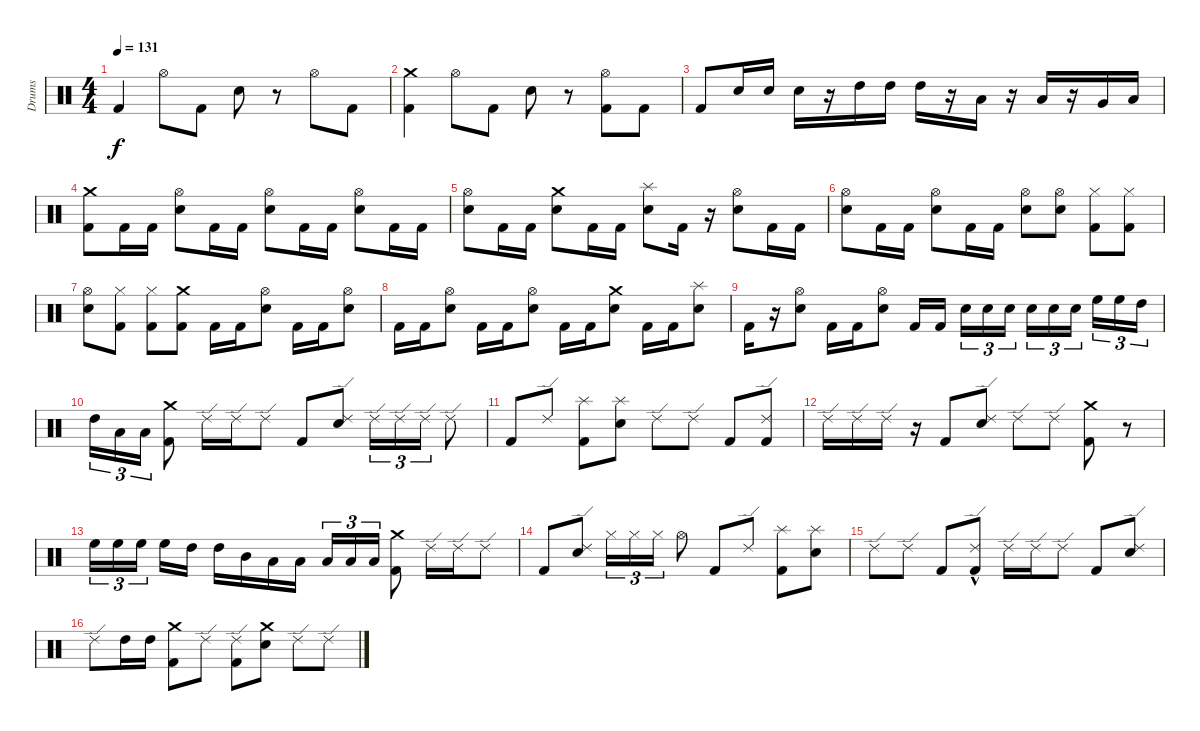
\track ("Drums" "Drums") {instrument percussion}
\staff {score}
\articulation defaults
\ts (4 4)
\tempo 131
\clef neutral
\ks c "Kick (hit) 2".4{dy f} "Hi-Hat (open)".8 "Kick (hit) 2".8 "Electric Snare (hit)".8
r.8 "Hi-Hat (open)".8 "Kick (hit) 2".8 |
("Crash medium (hit)" "Kick (hit) 2").4 "Hi-Hat (open)".8 "Kick (hit) 2".8 "Electric Snare (hit)".8 r.8 ("Kick (hit) 2" "Hi-Hat (open)").8 "Kick (hit) 2".8 |
"Kick (hit) 2".8 "Electric Snare (hit)".16 "Electric Snare (hit)".16 "Electric Snare (hit)".16 r.16 "High Tom (hit)".16 "High Tom (hit)".16 "High Tom (hit)".16 r.16 "Low Tom (hit)".16 r.16 "Low Tom (hit)".16 r.16 "Very Low Tom (hit)".16 "Low Floor Tom (hit)".16 |
("Crash medium (hit)" "Kick (hit) 2").8 "Kick (hit) 2".16 "Kick (hit) 2".16 ("Hi-Hat (open)" "Electric Snare (hit)").8 "Kick (hit) 2".16 "Kick (hit) 2".16 ("Hi-Hat (open)" "Electric Snare (hit)").8 "Kick (hit) 2".16 "Kick (hit) 2".16 ("Hi-Hat (open)" "Electric Snare (hit)").8 "Kick (hit) 2".16 "Kick (hit) 2".16 |
("Hi-Hat (open)" "Electric Snare (hit)").8 "Kick (hit) 2".16 "Kick (hit) 2".16 ("Crash medium (hit)" "Electric Snare (hit)").8 "Kick (hit) 2".16 "Kick (hit) 2".16 ("Splash (hit)" "Electric Snare (hit)").8 "Kick (hit) 2".16 r.16 ("Electric Snare (hit)" "Hi-Hat (open)").8 "Kick (hit) 2".16 "Kick (hit) 2".16 |
("Electric Snare (hit)" "Hi-Hat (open)").8 "Kick (hit) 2".16 "Kick (hit) 2".16 ("Electric Snare (hit)" "Hi-Hat (open)").8 "Kick (hit) 2".16 "Kick (hit) 2".16 ("Electric Snare (hit)" "Hi-Hat (open)").8 ("Hi-Hat (open)" "Electric Snare (hit)").8 ("Hi-Hat (closed)" "Kick (hit) 2").8 ("Hi-Hat (closed)" "Kick (hit) 2").8 |
("Hi-Hat (open)" "Electric Snare (hit)").8 ("Hi-Hat (closed)" "Kick (hit) 2").8 ("Hi-Hat (closed)" "Kick (hit) 2").8 ("Crash medium (hit)" "Kick (hit) 2").8 "Kick (hit) 2".16 "Kick (hit) 2".16 ("Hi-Hat (open)" "Electric Snare (hit)").8 "Kick (hit) 2".16 "Kick (hit) 2".16 ("Hi-Hat (open)" "Electric Snare (hit)").8 |
"Kick (hit) 2".16 "Kick (hit) 2".16 ("Hi-Hat (open)" "Electric Snare (hit)").8 "Kick (hit) 2".16 "Kick (hit) 2".16 ("Hi-Hat (open)" "Electric Snare (hit)").8 "Kick (hit) 2".16 "Kick (hit) 2".16 ("Crash medium (hit)" "Electric Snare (hit)").8 "Kick (hit) 2".16 "Kick (hit) 2".16 ("Splash (hit)" "Electric Snare (hit)").8 |
"Kick (hit) 2".16 r.16 ("Electric Snare (hit)" "Hi-Hat (open)").8 "Kick (hit) 2".16 "Kick (hit) 2".16 ("Electric Snare (hit)" "Hi-Hat (open)").8 "Kick (hit) 2".16 "Kick (hit) 2".16 "Electric Snare (hit)".16{tu (3 2) volume 9} "Electric Snare (hit)".16{tu (3 2) volume 10} "Electric Snare (hit)".16{tu (3 2) volume 11} "Electric Snare (hit)".16{tu (3 2) volume 12} "Electric Snare (hit)".16{tu (3 2) volume 14} "Electric Snare (hit)".16{tu (3 2) volume 15} "High Floor Tom (hit)".16{tu (3 2) volume 16} "High Floor Tom (hit)".16{tu (3 2)} "High Tom (hit)".16{tu (3 2)} |
"High Tom (hit)".16{tu (3 2)} "Low Tom (hit)".16{tu (3 2)} "Low Tom (hit)".16{tu (3 2)} ("Crash medium (hit)" "Kick (hit) 2").8 "Ride (edge) 2".16 "Ride (edge) 2".16 "Ride (edge) 2".8 "Kick (hit) 2".8 ("Ride (edge) 2" "Electric Snare (hit)").8 "Ride (edge) 2".16{tu (3 2) volume 11} "Ride (edge) 2".16{tu (3 2) volume 13} "Ride (edge) 2".16{tu (3 2) volume 14} "Ride (edge) 2".8{volume 16} |
"Kick (hit) 2".8 "Ride (edge) 2".8 ("Splash (hit)" "Kick (hit) 2").8 ("Splash (hit)" "Electric Snare (hit)").8 "Ride (edge) 2".8 "Ride (edge) 2".8 "Kick (hit) 2".8 ("Ride (edge) 2" "Kick (hit) 2").8 |
"Ride (edge) 2".16 "Ride (edge) 2".16 "Ride (edge) 2".16 r.16 "Kick (hit) 2".8 ("Ride (edge) 2" "Electric Snare (hit)").8 "Ride (edge) 2".8 "Ride (edge) 2".8 ("Crash medium (hit)" "Kick (hit) 2").8 r.8 |
"High Floor Tom (hit)".16{tu (3 2) volume 11} "High Floor Tom (hit)".16{tu (3 2) volume 12} "High Floor Tom (hit)".16{tu (3 2) volume 12} "High Floor Tom (hit)".16{volume 12} "High Tom (hit)".16{volume 13} "High Tom (hit)".16{volume 13} "Mid Tom (hit)".16{volume 14} "Low Tom (hit)".16{volume 14} "Low Tom (hit)".16{volume 15} "Low Tom (hit)".16{tu (3 2) volume 15} "Low Tom (hit)".16{tu (3 2) volume 16} "Low Tom (hit)".16{tu (3 2) volume 16} ("Crash medium (hit)" "Kick (hit) 2").8 "Ride (edge) 2".16 "Ride (edge) 2".16 "Ride (edge) 2".8 |
"Kick (hit) 2".8 ("Ride (edge) 2" "Electric Snare (hit)").8 "Hi-Hat (closed)".16{tu (3 2) volume 11} "Hi-Hat (closed)".16{tu (3 2) volume 13} "Hi-Hat (closed)".16{tu (3 2) volume 14} "Hi-Hat (open)".8{volume 16} "Kick (hit) 2".8 "Ride (edge) 2".8 ("Splash (hit)" "Kick (hit) 2").8 ("Splash (hit)" "Electric Snare (hit)").8 |
"Ride (edge) 2".8 "Ride (edge) 2".8 "Kick (hit) 2".8 ("Ride (edge) 2" "Kick (hit) 2"{hac}).8 "Ride (edge) 2".16 "Ride (edge) 2".16 "Ride (edge) 2".8 "Kick (hit) 2".8 ("Ride (edge) 2" "Electric Snare (hit)").8 |
"Ride (edge) 2".8 "High Tom (hit)".16 "High Tom (hit)".16 ("Crash medium (hit)" "Kick (hit) 2").8 "Ride (edge) 2".8 ("Ride (edge) 2" "Kick (hit) 2").8 ("Crash medium (hit)" "Electric Snare (hit)").8 "Ride (edge) 2".8 "Ride (edge) 2".8
